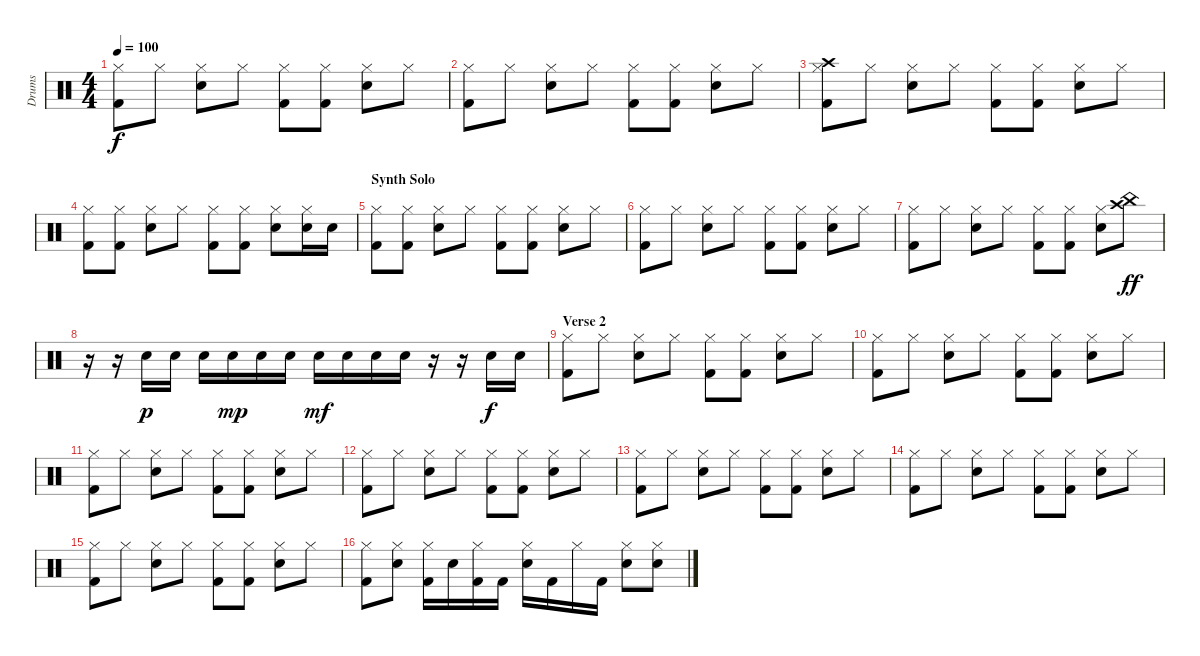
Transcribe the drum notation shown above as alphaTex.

\track ("Drums" "Drums") {instrument percussion}
\staff {score}
\articulation defaults
\ts (4 4)
\tempo 100
\clef neutral
\ks c
("Hi-Hat (closed)" "Kick (hit) 2").8{dy f} "Hi-Hat (closed)".8 ("Hi-Hat (closed)" "Snare (hit) 2").8 "Hi-Hat (closed)".8 ("Hi-Hat (closed)" "Kick (hit) 2").8 ("Hi-Hat (closed)" "Kick (hit) 2").8 ("Hi-Hat (closed)" "Snare (hit) 2").8 "Hi-Hat (closed)".8 |
("Hi-Hat (closed)" "Kick (hit) 2").8 "Hi-Hat (closed)".8 ("Hi-Hat (closed)" "Snare (hit) 2").8 "Hi-Hat (closed)".8 ("Hi-Hat (closed)" "Kick (hit) 2").8 ("Hi-Hat (closed)" "Kick (hit) 2").8 ("Hi-Hat (closed)" "Snare (hit) 2").8 "Hi-Hat (closed)".8 |
("Hi-Hat (closed)" "Crash high (hit)" "Kick (hit) 2").8 "Hi-Hat (closed)".8 ("Hi-Hat (closed)" "Snare (hit) 2").8 "Hi-Hat (closed)".8 ("Hi-Hat (closed)" "Kick (hit) 2").8 ("Hi-Hat (closed)" "Kick (hit) 2").8 ("Hi-Hat (closed)" "Snare (hit) 2").8 "Hi-Hat (closed)".8 |
("Hi-Hat (closed)" "Kick (hit) 2").8 ("Hi-Hat (closed)" "Kick (hit) 2").8 ("Hi-Hat (closed)" "Snare (hit) 2").8 "Hi-Hat (closed)".8 ("Hi-Hat (closed)" "Kick (hit) 2").8 ("Hi-Hat (closed)" "Kick (hit) 2").8 ("Hi-Hat (closed)" "Snare (hit) 2").8 ("Hi-Hat (closed)" "Snare (hit) 2").16 "Snare (hit) 2".16 |
\section ("" "Synth Solo")
("Hi-Hat (closed)" "Kick (hit) 2").8 ("Hi-Hat (closed)" "Kick (hit) 2").8 ("Hi-Hat (closed)" "Snare (hit) 2").8 "Hi-Hat (closed)".8 ("Hi-Hat (closed)" "Kick (hit) 2").8 ("Hi-Hat (closed)" "Kick (hit) 2").8 ("Hi-Hat (closed)" "Snare (hit) 2").8 "Hi-Hat (closed)".8 |
("Hi-Hat (closed)" "Kick (hit) 2").8 "Hi-Hat (closed)".8 ("Hi-Hat (closed)" "Snare (hit) 2").8 "Hi-Hat (closed)".8 ("Hi-Hat (closed)" "Kick (hit) 2").8 ("Hi-Hat (closed)" "Kick (hit) 2").8 ("Hi-Hat (closed)" "Snare (hit) 2").8 "Hi-Hat (closed)".8 |
("Hi-Hat (closed)" "Kick (hit) 2").8 "Hi-Hat (closed)".8 ("Hi-Hat (closed)" "Snare (hit) 2").8 "Hi-Hat (closed)".8 ("Hi-Hat (closed)" "Kick (hit) 2").8 ("Hi-Hat (closed)" "Kick (hit) 2").8 ("Hi-Hat (closed)" "Snare (hit) 2").8 ("Crash high (hit)" "China (hit)").8{dy ff} |
r.16 r.16 "Snare (hit) 2".16{dy p} "Snare (hit) 2".16 "Snare (hit) 2".16 "Snare (hit) 2".16{dy mp} "Snare (hit) 2".16 "Snare (hit) 2".16 "Snare (hit) 2".16{dy mf} "Snare (hit) 2".16 "Snare (hit) 2".16 "Snare (hit) 2".16 r.16 r.16 "Snare (hit) 2".16{dy f} "Snare (hit) 2".16 |
\section ("" "Verse 2")
("Hi-Hat (closed)" "Kick (hit) 2").8 "Hi-Hat (closed)".8 ("Hi-Hat (closed)" "Snare (hit) 2").8 "Hi-Hat (closed)".8 ("Hi-Hat (closed)" "Kick (hit) 2").8 ("Hi-Hat (closed)" "Kick (hit) 2").8 ("Hi-Hat (closed)" "Snare (hit) 2").8 "Hi-Hat (closed)".8 |
("Hi-Hat (closed)" "Kick (hit) 2").8 "Hi-Hat (closed)".8 ("Hi-Hat (closed)" "Snare (hit) 2").8 "Hi-Hat (closed)".8 ("Hi-Hat (closed)" "Kick (hit) 2").8 ("Hi-Hat (closed)" "Kick (hit) 2").8 ("Hi-Hat (closed)" "Snare (hit) 2").8 "Hi-Hat (closed)".8 |
("Hi-Hat (closed)" "Kick (hit) 2").8 "Hi-Hat (closed)".8 ("Hi-Hat (closed)" "Snare (hit) 2").8 "Hi-Hat (closed)".8 ("Hi-Hat (closed)" "Kick (hit) 2").8 ("Hi-Hat (closed)" "Kick (hit) 2").8 ("Hi-Hat (closed)" "Snare (hit) 2").8 "Hi-Hat (closed)".8 |
("Hi-Hat (closed)" "Kick (hit) 2").8 "Hi-Hat (closed)".8 ("Hi-Hat (closed)" "Snare (hit) 2").8 "Hi-Hat (closed)".8 ("Hi-Hat (closed)" "Kick (hit) 2").8 ("Hi-Hat (closed)" "Kick (hit) 2").8 ("Hi-Hat (closed)" "Snare (hit) 2").8 "Hi-Hat (closed)".8 |
("Hi-Hat (closed)" "Kick (hit) 2").8 "Hi-Hat (closed)".8 ("Hi-Hat (closed)" "Snare (hit) 2").8 "Hi-Hat (closed)".8 ("Hi-Hat (closed)" "Kick (hit) 2").8 ("Hi-Hat (closed)" "Kick (hit) 2").8 ("Hi-Hat (closed)" "Snare (hit) 2").8 "Hi-Hat (closed)".8 |
("Hi-Hat (closed)" "Kick (hit) 2").8 "Hi-Hat (closed)".8 ("Hi-Hat (closed)" "Snare (hit) 2").8 "Hi-Hat (closed)".8 ("Hi-Hat (closed)" "Kick (hit) 2").8 ("Hi-Hat (closed)" "Kick (hit) 2").8 ("Hi-Hat (closed)" "Snare (hit) 2").8 "Hi-Hat (closed)".8 |
("Hi-Hat (closed)" "Kick (hit) 2").8 "Hi-Hat (closed)".8 ("Hi-Hat (closed)" "Snare (hit) 2").8 "Hi-Hat (closed)".8 ("Hi-Hat (closed)" "Kick (hit) 2").8 ("Hi-Hat (closed)" "Kick (hit) 2").8 ("Hi-Hat (closed)" "Snare (hit) 2").8 "Hi-Hat (closed)".8 |
("Hi-Hat (closed)" "Kick (hit) 2").8 ("Hi-Hat (closed)" "Snare (hit) 2").8 ("Hi-Hat (closed)" "Kick (hit) 2").16 "Snare (hit) 2".16 ("Hi-Hat (closed)" "Kick (hit) 2").16 "Kick (hit) 2".16 ("Hi-Hat (closed)" "Snare (hit) 2").16 "Kick (hit) 2".16 "Hi-Hat (closed)".16 "Kick (hit) 2".16 ("Hi-Hat (closed)" "Snare (hit) 2").8 ("Hi-Hat (closed)" "Snare (hit) 2").8
